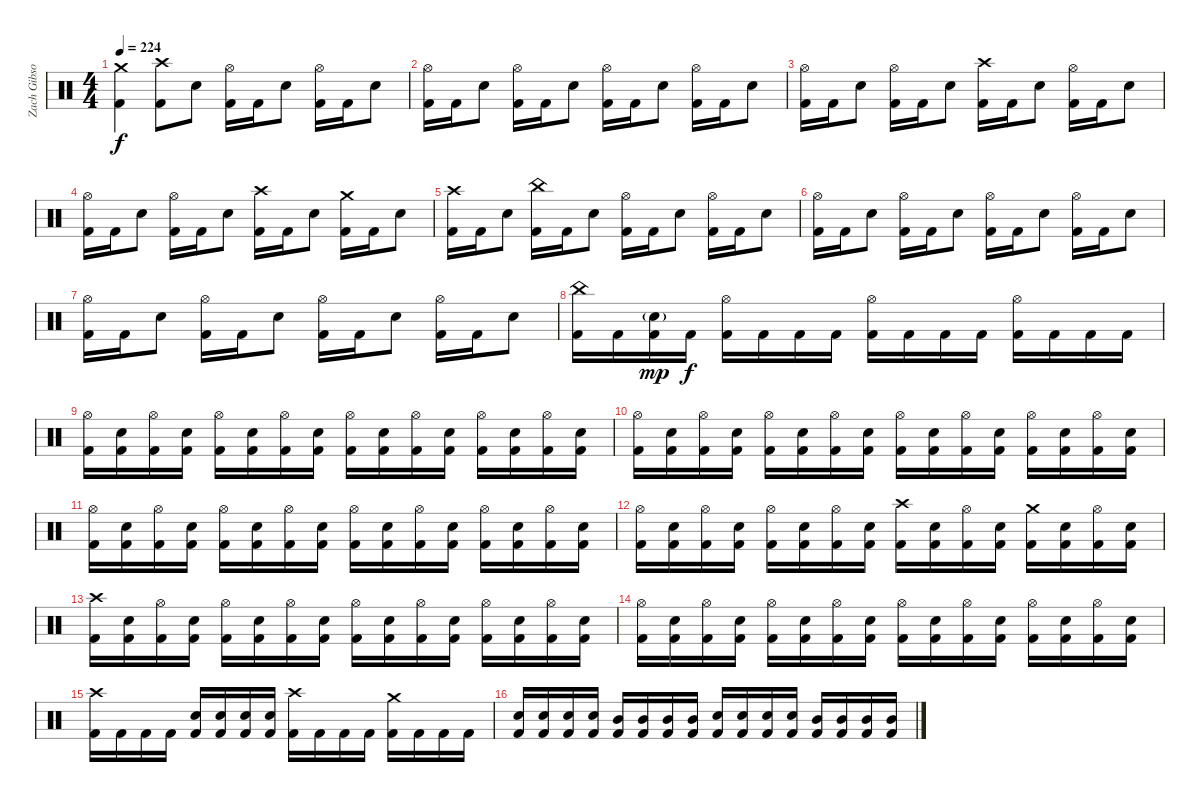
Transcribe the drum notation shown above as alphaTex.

\track ("Zach Gibson (Drums)" "Zach Gibso") {instrument percussion}
\staff {score}
\articulation defaults
\ts (4 4)
\tempo 224
\clef neutral
\ks c
("Crash medium (hit)" "Kick (hit) 2").4{dy f} ("Crash high (hit)" "Kick (hit) 2").8 "Snare (hit) 2".8 ("Hi-Hat (open)" "Kick (hit) 2").16 "Kick (hit) 2".16 "Snare (hit) 2".8 ("Hi-Hat (open)" "Kick (hit) 2").16 "Kick (hit) 2".16 "Snare (hit) 2".8 |
("Hi-Hat (open)" "Kick (hit) 2").16 "Kick (hit) 2".16 "Snare (hit) 2".8 ("Hi-Hat (open)" "Kick (hit) 2").16 "Kick (hit) 2".16 "Snare (hit) 2".8 ("Hi-Hat (open)" "Kick (hit) 2").16 "Kick (hit) 2".16 "Snare (hit) 2".8 ("Hi-Hat (open)" "Kick (hit) 2").16 "Kick (hit) 2".16 "Snare (hit) 2".8 |
("Hi-Hat (open)" "Kick (hit) 2").16 "Kick (hit) 2".16 "Snare (hit) 2".8 ("Hi-Hat (open)" "Kick (hit) 2").16 "Kick (hit) 2".16 "Snare (hit) 2".8 ("Crash high (hit)" "Kick (hit) 2").16 "Kick (hit) 2".16 "Snare (hit) 2".8 ("Hi-Hat (open)" "Kick (hit) 2").16 "Kick (hit) 2".16 "Snare (hit) 2".8 |
("Hi-Hat (open)" "Kick (hit) 2").16 "Kick (hit) 2".16 "Snare (hit) 2".8 ("Hi-Hat (open)" "Kick (hit) 2").16 "Kick (hit) 2".16 "Snare (hit) 2".8 ("Crash high (hit)" "Kick (hit) 2").16 "Kick (hit) 2".16 "Snare (hit) 2".8 ("Crash medium (hit)" "Kick (hit) 2").16 "Kick (hit) 2".16 "Snare (hit) 2".8 |
("Crash high (hit)" "Kick (hit) 2").16 "Kick (hit) 2".16 "Snare (hit) 2".8 ("China (hit)" "Kick (hit) 2").16 "Kick (hit) 2".16 "Snare (hit) 2".8 ("Hi-Hat (open)" "Kick (hit) 2").16 "Kick (hit) 2".16 "Snare (hit) 2".8 ("Hi-Hat (open)" "Kick (hit) 2").16 "Kick (hit) 2".16 "Snare (hit) 2".8 |
("Hi-Hat (open)" "Kick (hit) 2").16 "Kick (hit) 2".16 "Snare (hit) 2".8 ("Hi-Hat (open)" "Kick (hit) 2").16 "Kick (hit) 2".16 "Snare (hit) 2".8 ("Hi-Hat (open)" "Kick (hit) 2").16 "Kick (hit) 2".16 "Snare (hit) 2".8 ("Hi-Hat (open)" "Kick (hit) 2").16 "Kick (hit) 2".16 "Snare (hit) 2".8 |
("Hi-Hat (open)" "Kick (hit) 2").16 "Kick (hit) 2".16 "Snare (hit) 2".8 ("Hi-Hat (open)" "Kick (hit) 2").16 "Kick (hit) 2".16 "Snare (hit) 2".8 ("Hi-Hat (open)" "Kick (hit) 2").16 "Kick (hit) 2".16 "Snare (hit) 2".8 ("Hi-Hat (open)" "Kick (hit) 2").16 "Kick (hit) 2".16 "Snare (hit) 2".8 |
("China (hit)" "Kick (hit) 2").16 "Kick (hit) 2".16 ("Snare (hit) 2"{g} "Kick (hit) 2").16{dy mp} "Kick (hit) 2".16{dy f} ("Hi-Hat (open)" "Kick (hit) 2").16 "Kick (hit) 2".16 "Kick (hit) 2".16 "Kick (hit) 2".16 ("Hi-Hat (open)" "Kick (hit) 2").16 "Kick (hit) 2".16 "Kick (hit) 2".16 "Kick (hit) 2".16 ("Hi-Hat (open)" "Kick (hit) 2").16 "Kick (hit) 2".16 "Kick (hit) 2".16 "Kick (hit) 2".16 |
("Hi-Hat (open)" "Kick (hit) 2").16 ("Snare (hit) 2" "Kick (hit) 2").16 ("Hi-Hat (open)" "Kick (hit) 2").16 ("Snare (hit) 2" "Kick (hit) 2").16 ("Hi-Hat (open)" "Kick (hit) 2").16 ("Snare (hit) 2" "Kick (hit) 2").16 ("Hi-Hat (open)" "Kick (hit) 2").16 ("Snare (hit) 2" "Kick (hit) 2").16 ("Hi-Hat (open)" "Kick (hit) 2").16 ("Snare (hit) 2" "Kick (hit) 2").16 ("Hi-Hat (open)" "Kick (hit) 2").16 ("Snare (hit) 2" "Kick (hit) 2").16 ("Hi-Hat (open)" "Kick (hit) 2").16 ("Snare (hit) 2" "Kick (hit) 2").16 ("Hi-Hat (open)" "Kick (hit) 2").16 ("Snare (hit) 2" "Kick (hit) 2").16 |
("Hi-Hat (open)" "Kick (hit) 2").16 ("Snare (hit) 2" "Kick (hit) 2").16 ("Hi-Hat (open)" "Kick (hit) 2").16 ("Snare (hit) 2" "Kick (hit) 2").16 ("Hi-Hat (open)" "Kick (hit) 2").16 ("Snare (hit) 2" "Kick (hit) 2").16 ("Hi-Hat (open)" "Kick (hit) 2").16 ("Snare (hit) 2" "Kick (hit) 2").16 ("Hi-Hat (open)" "Kick (hit) 2").16 ("Snare (hit) 2" "Kick (hit) 2").16 ("Hi-Hat (open)" "Kick (hit) 2").16 ("Snare (hit) 2" "Kick (hit) 2").16 ("Hi-Hat (open)" "Kick (hit) 2").16 ("Snare (hit) 2" "Kick (hit) 2").16 ("Hi-Hat (open)" "Kick (hit) 2").16 ("Snare (hit) 2" "Kick (hit) 2").16 |
("Hi-Hat (open)" "Kick (hit) 2").16 ("Snare (hit) 2" "Kick (hit) 2").16 ("Hi-Hat (open)" "Kick (hit) 2").16 ("Snare (hit) 2" "Kick (hit) 2").16 ("Hi-Hat (open)" "Kick (hit) 2").16 ("Snare (hit) 2" "Kick (hit) 2").16 ("Hi-Hat (open)" "Kick (hit) 2").16 ("Snare (hit) 2" "Kick (hit) 2").16 ("Hi-Hat (open)" "Kick (hit) 2").16 ("Snare (hit) 2" "Kick (hit) 2").16 ("Hi-Hat (open)" "Kick (hit) 2").16 ("Snare (hit) 2" "Kick (hit) 2").16 ("Hi-Hat (open)" "Kick (hit) 2").16 ("Snare (hit) 2" "Kick (hit) 2").16 ("Hi-Hat (open)" "Kick (hit) 2").16 ("Snare (hit) 2" "Kick (hit) 2").16 |
("Hi-Hat (open)" "Kick (hit) 2").16 ("Snare (hit) 2" "Kick (hit) 2").16 ("Hi-Hat (open)" "Kick (hit) 2").16 ("Snare (hit) 2" "Kick (hit) 2").16 ("Hi-Hat (open)" "Kick (hit) 2").16 ("Snare (hit) 2" "Kick (hit) 2").16 ("Hi-Hat (open)" "Kick (hit) 2").16 ("Snare (hit) 2" "Kick (hit) 2").16 ("Crash high (hit)" "Kick (hit) 2").16 ("Snare (hit) 2" "Kick (hit) 2").16 ("Hi-Hat (open)" "Kick (hit) 2").16 ("Snare (hit) 2" "Kick (hit) 2").16 ("Crash medium (hit)" "Kick (hit) 2").16 ("Snare (hit) 2" "Kick (hit) 2").16 ("Hi-Hat (open)" "Kick (hit) 2").16 ("Snare (hit) 2" "Kick (hit) 2").16 |
("Crash high (hit)" "Kick (hit) 2").16 ("Snare (hit) 2" "Kick (hit) 2").16 ("Hi-Hat (open)" "Kick (hit) 2").16 ("Snare (hit) 2" "Kick (hit) 2").16 ("Hi-Hat (open)" "Kick (hit) 2").16 ("Snare (hit) 2" "Kick (hit) 2").16 ("Hi-Hat (open)" "Kick (hit) 2").16 ("Snare (hit) 2" "Kick (hit) 2").16 ("Hi-Hat (open)" "Kick (hit) 2").16 ("Snare (hit) 2" "Kick (hit) 2").16 ("Hi-Hat (open)" "Kick (hit) 2").16 ("Snare (hit) 2" "Kick (hit) 2").16 ("Hi-Hat (open)" "Kick (hit) 2").16 ("Snare (hit) 2" "Kick (hit) 2").16 ("Hi-Hat (open)" "Kick (hit) 2").16 ("Snare (hit) 2" "Kick (hit) 2").16 |
("Hi-Hat (open)" "Kick (hit) 2").16 ("Snare (hit) 2" "Kick (hit) 2").16 ("Hi-Hat (open)" "Kick (hit) 2").16 ("Snare (hit) 2" "Kick (hit) 2").16 ("Hi-Hat (open)" "Kick (hit) 2").16 ("Snare (hit) 2" "Kick (hit) 2").16 ("Hi-Hat (open)" "Kick (hit) 2").16 ("Snare (hit) 2" "Kick (hit) 2").16 ("Hi-Hat (open)" "Kick (hit) 2").16 ("Snare (hit) 2" "Kick (hit) 2").16 ("Hi-Hat (open)" "Kick (hit) 2").16 ("Snare (hit) 2" "Kick (hit) 2").16 ("Hi-Hat (open)" "Kick (hit) 2").16 ("Snare (hit) 2" "Kick (hit) 2").16 ("Hi-Hat (open)" "Kick (hit) 2").16 ("Snare (hit) 2" "Kick (hit) 2").16 |
("Crash high (hit)" "Kick (hit) 2").16 "Kick (hit) 2".16 "Kick (hit) 2".16 "Kick (hit) 2".16 ("Snare (hit) 2" "Kick (hit) 2").16 ("Snare (hit) 2" "Kick (hit) 2").16 ("Snare (hit) 2" "Kick (hit) 2").16 ("Snare (hit) 2" "Kick (hit) 2").16 ("Crash high (hit)" "Kick (hit) 2").16 "Kick (hit) 2".16 "Kick (hit) 2".16 "Kick (hit) 2".16 ("Crash medium (hit)" "Kick (hit) 2").16 "Kick (hit) 2".16 "Kick (hit) 2".16 "Kick (hit) 2".16 |
("Snare (hit) 2" "Kick (hit) 2").16 ("Snare (hit) 2" "Kick (hit) 2").16 ("Snare (hit) 2" "Kick (hit) 2").16 ("Snare (hit) 2" "Kick (hit) 2").16 ("Mid Tom (hit)" "Kick (hit) 2").16 ("Mid Tom (hit)" "Kick (hit) 2").16 ("Mid Tom (hit)" "Kick (hit) 2").16 ("Mid Tom (hit)" "Kick (hit) 2").16 ("Snare (hit) 2" "Kick (hit) 2").16 ("Snare (hit) 2" "Kick (hit) 2").16 ("Snare (hit) 2" "Kick (hit) 2").16 ("Snare (hit) 2" "Kick (hit) 2").16 ("Mid Tom (hit)" "Kick (hit) 2").16 ("Mid Tom (hit)" "Kick (hit) 2").16 ("Mid Tom (hit)" "Kick (hit) 2").16 ("Mid Tom (hit)" "Kick (hit) 2").16
